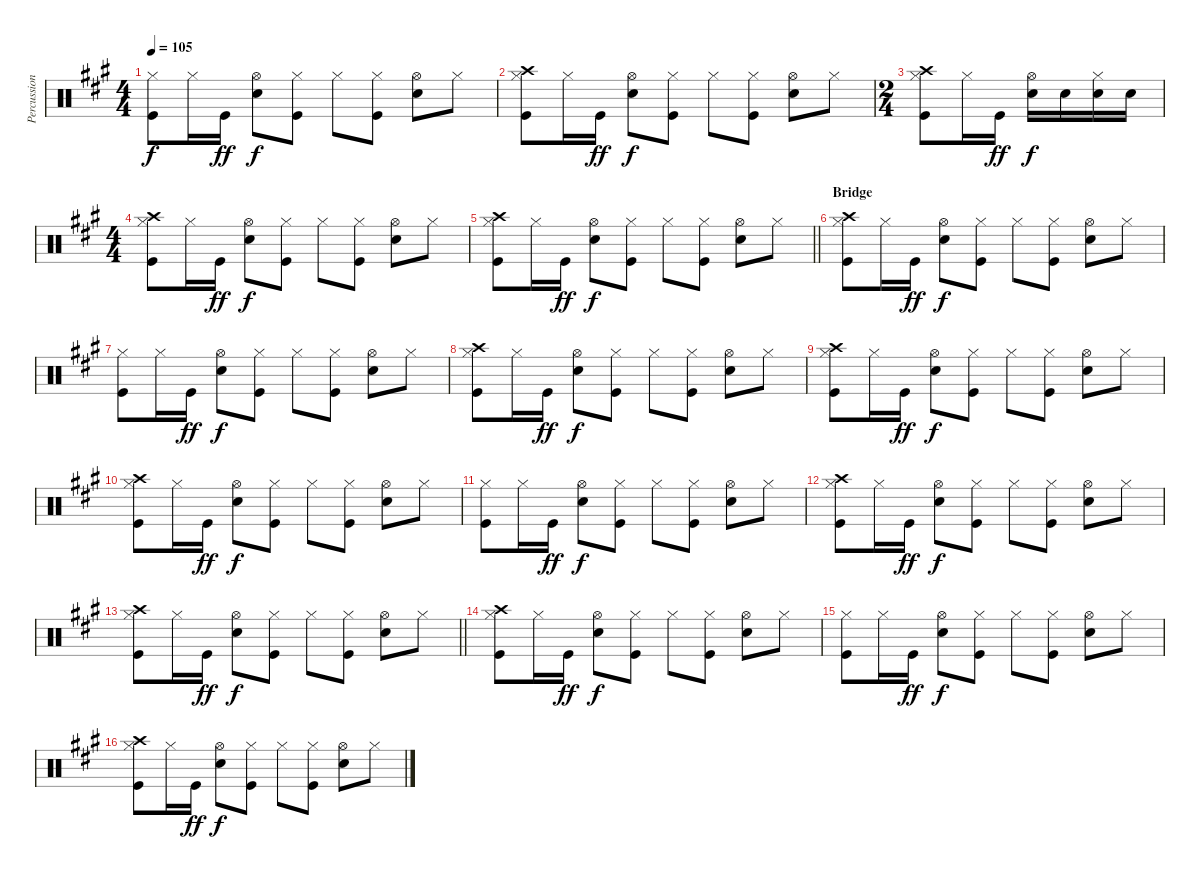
\track ("Percussion" "Percussion") {instrument percussion}
\staff {score}
\articulation defaults
\ts (4 4)
\tempo 105
\clef neutral
\ks a
("Hi-Hat (closed)" "Kick (hit)").8{dy f} "Hi-Hat (closed)".16 "Kick (hit)".16{dy ff} ("Hi-Hat (open)" "Snare (hit) 2").8{dy f} ("Hi-Hat (closed)" "Kick (hit)").8 "Hi-Hat (closed)".8 ("Hi-Hat (closed)" "Kick (hit)").8 ("Hi-Hat (open)" "Snare (hit) 2").8 "Hi-Hat (closed)".8 |
("Hi-Hat (closed)" "Crash high (hit)" "Kick (hit)").8 "Hi-Hat (closed)".16 "Kick (hit)".16{dy ff} ("Hi-Hat (open)" "Snare (hit) 2").8{dy f} ("Hi-Hat (closed)" "Kick (hit)").8 "Hi-Hat (closed)".8 ("Hi-Hat (closed)" "Kick (hit)").8 ("Hi-Hat (open)" "Snare (hit) 2").8 "Hi-Hat (closed)".8 |
\ts (2 4)
("Hi-Hat (closed)" "Crash high (hit)" "Kick (hit)").8 "Hi-Hat (closed)".16 "Kick (hit)".16{dy ff} ("Hi-Hat (open)" "Snare (hit) 2").16{dy f} "Snare (hit) 2".16 ("Hi-Hat (closed)" "Snare (hit) 2").16 "Snare (hit) 2".16 |
\ts (4 4)
("Hi-Hat (closed)" "Crash high (hit)" "Kick (hit)").8 "Hi-Hat (closed)".16 "Kick (hit)".16{dy ff} ("Hi-Hat (open)" "Snare (hit) 2").8{dy f} ("Hi-Hat (closed)" "Kick (hit)").8 "Hi-Hat (closed)".8 ("Hi-Hat (closed)" "Kick (hit)").8 ("Hi-Hat (open)" "Snare (hit) 2").8 "Hi-Hat (closed)".8 |
\barLineRight lightlight
("Hi-Hat (closed)" "Crash high (hit)" "Kick (hit)").8 "Hi-Hat (closed)".16 "Kick (hit)".16{dy ff} ("Hi-Hat (open)" "Snare (hit) 2").8{dy f} ("Hi-Hat (closed)" "Kick (hit)").8 "Hi-Hat (closed)".8 ("Hi-Hat (closed)" "Kick (hit)").8 ("Hi-Hat (open)" "Snare (hit) 2").8 "Hi-Hat (closed)".8 |
\section ("" "Bridge")
("Hi-Hat (closed)" "Crash high (hit)" "Kick (hit)").8 "Hi-Hat (closed)".16 "Kick (hit)".16{dy ff} ("Hi-Hat (open)" "Snare (hit) 2").8{dy f} ("Hi-Hat (closed)" "Kick (hit)").8 "Hi-Hat (closed)".8 ("Hi-Hat (closed)" "Kick (hit)").8 ("Hi-Hat (open)" "Snare (hit) 2").8 "Hi-Hat (closed)".8 |
("Hi-Hat (closed)" "Kick (hit)").8 "Hi-Hat (closed)".16 "Kick (hit)".16{dy ff} ("Hi-Hat (open)" "Snare (hit) 2").8{dy f} ("Hi-Hat (closed)" "Kick (hit)").8 "Hi-Hat (closed)".8 ("Hi-Hat (closed)" "Kick (hit)").8 ("Hi-Hat (open)" "Snare (hit) 2").8 "Hi-Hat (closed)".8 |
("Hi-Hat (closed)" "Crash high (hit)" "Kick (hit)").8 "Hi-Hat (closed)".16 "Kick (hit)".16{dy ff} ("Hi-Hat (open)" "Snare (hit) 2").8{dy f} ("Hi-Hat (closed)" "Kick (hit)").8 "Hi-Hat (closed)".8 ("Hi-Hat (closed)" "Kick (hit)").8 ("Hi-Hat (open)" "Snare (hit) 2").8 "Hi-Hat (closed)".8 |
("Hi-Hat (closed)" "Crash high (hit)" "Kick (hit)").8 "Hi-Hat (closed)".16 "Kick (hit)".16{dy ff} ("Hi-Hat (open)" "Snare (hit) 2").8{dy f} ("Hi-Hat (closed)" "Kick (hit)").8 "Hi-Hat (closed)".8 ("Hi-Hat (closed)" "Kick (hit)").8 ("Hi-Hat (open)" "Snare (hit) 2").8 "Hi-Hat (closed)".8 |
("Hi-Hat (closed)" "Crash high (hit)" "Kick (hit)").8 "Hi-Hat (closed)".16 "Kick (hit)".16{dy ff} ("Hi-Hat (open)" "Snare (hit) 2").8{dy f} ("Hi-Hat (closed)" "Kick (hit)").8 "Hi-Hat (closed)".8 ("Hi-Hat (closed)" "Kick (hit)").8 ("Hi-Hat (open)" "Snare (hit) 2").8 "Hi-Hat (closed)".8 |
("Hi-Hat (closed)" "Kick (hit)").8 "Hi-Hat (closed)".16 "Kick (hit)".16{dy ff} ("Hi-Hat (open)" "Snare (hit) 2").8{dy f} ("Hi-Hat (closed)" "Kick (hit)").8 "Hi-Hat (closed)".8 ("Hi-Hat (closed)" "Kick (hit)").8 ("Hi-Hat (open)" "Snare (hit) 2").8 "Hi-Hat (closed)".8 |
("Hi-Hat (closed)" "Crash high (hit)" "Kick (hit)").8 "Hi-Hat (closed)".16 "Kick (hit)".16{dy ff} ("Hi-Hat (open)" "Snare (hit) 2").8{dy f} ("Hi-Hat (closed)" "Kick (hit)").8 "Hi-Hat (closed)".8 ("Hi-Hat (closed)" "Kick (hit)").8 ("Hi-Hat (open)" "Snare (hit) 2").8 "Hi-Hat (closed)".8 |
\barLineRight lightlight
("Hi-Hat (closed)" "Crash high (hit)" "Kick (hit)").8 "Hi-Hat (closed)".16 "Kick (hit)".16{dy ff} ("Hi-Hat (open)" "Snare (hit) 2").8{dy f} ("Hi-Hat (closed)" "Kick (hit)").8 "Hi-Hat (closed)".8 ("Hi-Hat (closed)" "Kick (hit)").8 ("Hi-Hat (open)" "Snare (hit) 2").8 "Hi-Hat (closed)".8 |
("Hi-Hat (closed)" "Crash high (hit)" "Kick (hit)").8 "Hi-Hat (closed)".16 "Kick (hit)".16{dy ff} ("Hi-Hat (open)" "Snare (hit) 2").8{dy f} ("Hi-Hat (closed)" "Kick (hit)").8 "Hi-Hat (closed)".8 ("Hi-Hat (closed)" "Kick (hit)").8 ("Hi-Hat (open)" "Snare (hit) 2").8 "Hi-Hat (closed)".8 |
("Hi-Hat (closed)" "Kick (hit)").8 "Hi-Hat (closed)".16 "Kick (hit)".16{dy ff} ("Hi-Hat (open)" "Snare (hit) 2").8{dy f} ("Hi-Hat (closed)" "Kick (hit)").8 "Hi-Hat (closed)".8 ("Hi-Hat (closed)" "Kick (hit)").8 ("Hi-Hat (open)" "Snare (hit) 2").8 "Hi-Hat (closed)".8 |
("Hi-Hat (closed)" "Crash high (hit)" "Kick (hit)").8 "Hi-Hat (closed)".16 "Kick (hit)".16{dy ff} ("Hi-Hat (open)" "Snare (hit) 2").8{dy f} ("Hi-Hat (closed)" "Kick (hit)").8 "Hi-Hat (closed)".8 ("Hi-Hat (closed)" "Kick (hit)").8 ("Hi-Hat (open)" "Snare (hit) 2").8 "Hi-Hat (closed)".8
